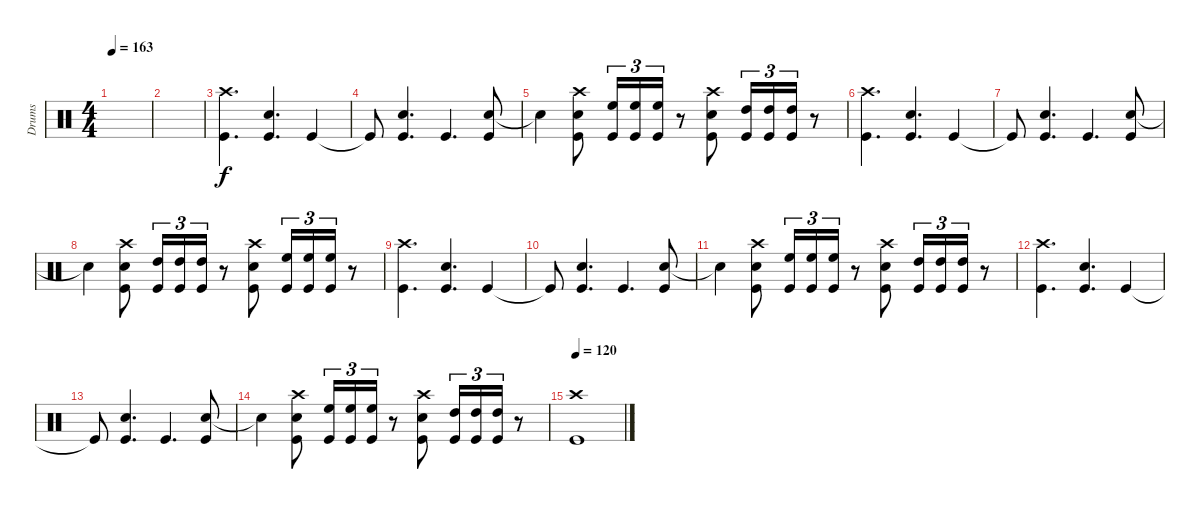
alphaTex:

\track ("Drums" "Drums") {instrument percussion}
\staff {score}
\articulation defaults
\ts (4 4)
\tempo 163
\clef neutral
\ks c
|
|
("Crash high (hit)" "Kick (hit)").4{d} ("Snare (hit) 2" "Kick (hit)").4{d} "Kick (hit)".4 |
"Kick (hit)"{t}.8 ("Snare (hit) 2" "Kick (hit)").4{d} "Kick (hit)".4{d} ("Snare (hit) 2" "Kick (hit)").8 |
"Snare (hit)"{t}.4 ("Crash high (hit)" "Snare (hit) 2" "Kick (hit)").8 ("High Floor Tom (hit)" "Kick (hit)").16{tu (3 2)} ("High Floor Tom (hit)" "Kick (hit)").16{tu (3 2)} ("High Floor Tom (hit)" "Kick (hit)").16{tu (3 2)} r.8 ("Crash high (hit)" "Snare (hit) 2" "Kick (hit)").8 ("High Tom (hit)" "Kick (hit)").16{tu (3 2)} ("High Tom (hit)" "Kick (hit)").16{tu (3 2)} ("High Tom (hit)" "Kick (hit)").16{tu (3 2)} r.8 |
("Crash high (hit)" "Kick (hit)").4{d} ("Snare (hit) 2" "Kick (hit)").4{d} "Kick (hit)".4 |
"Kick (hit)"{t}.8 ("Snare (hit) 2" "Kick (hit)").4{d} "Kick (hit)".4{d} ("Snare (hit) 2" "Kick (hit)").8 |
"Snare (hit)"{t}.4 ("Crash high (hit)" "Snare (hit) 2" "Kick (hit)").8 ("High Tom (hit)" "Kick (hit)").16{tu (3 2)} ("High Tom (hit)" "Kick (hit)").16{tu (3 2)} ("High Tom (hit)" "Kick (hit)").16{tu (3 2)} r.8 ("Crash high (hit)" "Snare (hit) 2" "Kick (hit)").8 ("High Floor Tom (hit)" "Kick (hit)").16{tu (3 2)} ("High Floor Tom (hit)" "Kick (hit)").16{tu (3 2)} ("High Floor Tom (hit)" "Kick (hit)").16{tu (3 2)} r.8 |
("Crash high (hit)" "Kick (hit)").4{d} ("Snare (hit) 2" "Kick (hit)").4{d} "Kick (hit)".4 |
"Kick (hit)"{t}.8 ("Snare (hit) 2" "Kick (hit)").4{d} "Kick (hit)".4{d} ("Snare (hit) 2" "Kick (hit)").8 |
"Snare (hit)"{t}.4 ("Crash high (hit)" "Snare (hit) 2" "Kick (hit)").8 ("High Floor Tom (hit)" "Kick (hit)").16{tu (3 2)} ("High Floor Tom (hit)" "Kick (hit)").16{tu (3 2)} ("High Floor Tom (hit)" "Kick (hit)").16{tu (3 2)} r.8 ("Crash high (hit)" "Snare (hit) 2" "Kick (hit)").8 ("High Tom (hit)" "Kick (hit)").16{tu (3 2)} ("High Tom (hit)" "Kick (hit)").16{tu (3 2)} ("High Tom (hit)" "Kick (hit)").16{tu (3 2)} r.8 |
("Crash high (hit)" "Kick (hit)").4{d} ("Snare (hit) 2" "Kick (hit)").4{d} "Kick (hit)".4 |
"Kick (hit)"{t}.8 ("Snare (hit) 2" "Kick (hit)").4{d} "Kick (hit)".4{d} ("Snare (hit) 2" "Kick (hit)").8 |
"Snare (hit)"{t}.4 ("Crash high (hit)" "Snare (hit) 2" "Kick (hit)").8 ("High Floor Tom (hit)" "Kick (hit)").16{tu (3 2)} ("High Floor Tom (hit)" "Kick (hit)").16{tu (3 2)} ("High Floor Tom (hit)" "Kick (hit)").16{tu (3 2)} r.8 ("Crash high (hit)" "Snare (hit) 2" "Kick (hit)").8 ("High Tom (hit)" "Kick (hit)").16{tu (3 2)} ("High Tom (hit)" "Kick (hit)").16{tu (3 2)} ("High Tom (hit)" "Kick (hit)").16{tu (3 2)} r.8 |
\tempo 120
("Crash high (hit)" "Kick (hit)").1
